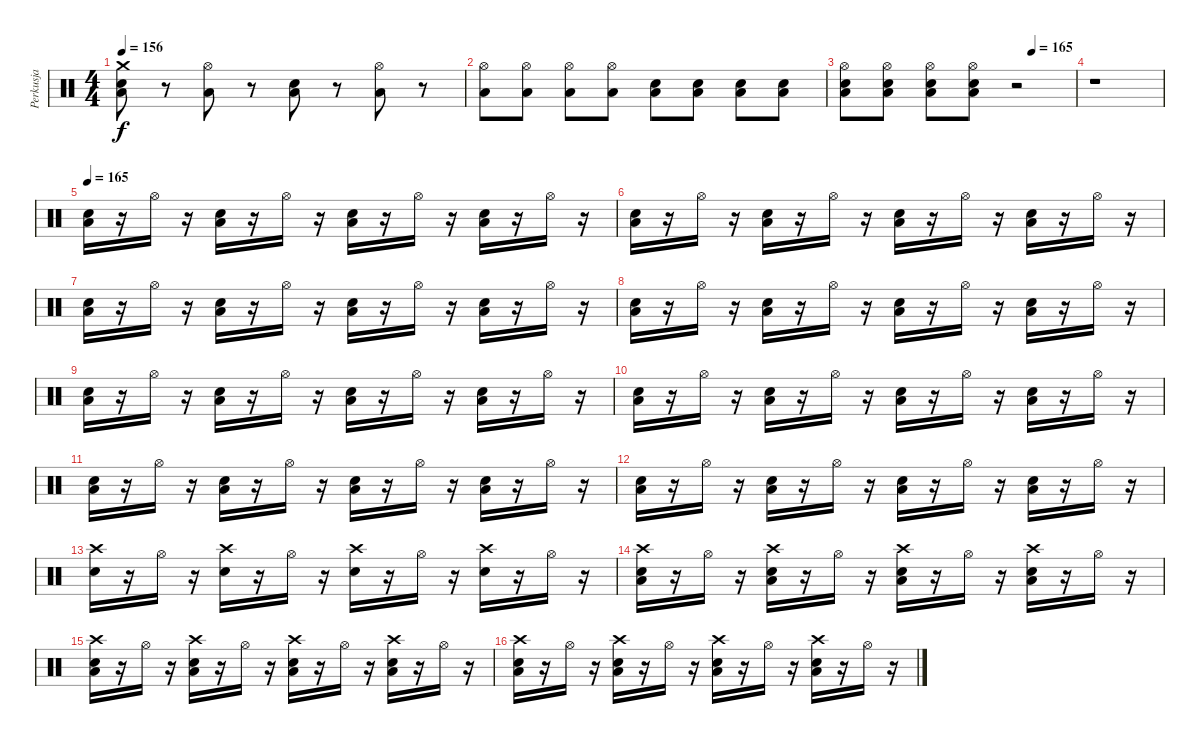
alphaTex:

\track ("Perkusja" "Perkusja") {instrument percussion}
\staff {score}
\articulation defaults
\ts (4 4)
\tempo 156
\clef neutral
\ks c
("Snare (hit) 2" "Low Tom (hit)" "Crash medium (hit)").8{dy f} r.8 ("Hi-Hat (open)" "Low Tom (hit)").8 r.8 ("Snare (hit) 2" "Low Tom (hit)").8 r.8 ("Hi-Hat (open)" "Low Tom (hit)").8 r.8 |
("Low Tom (hit)" "Hi-Hat (open)").8 ("Low Tom (hit)" "Hi-Hat (open)").8 ("Low Tom (hit)" "Hi-Hat (open)").8 ("Low Tom (hit)" "Hi-Hat (open)").8 ("Snare (hit) 2" "Low Tom (hit)").8 ("Snare (hit) 2" "Low Tom (hit)").8 ("Snare (hit) 2" "Low Tom (hit)").8 ("Snare (hit) 2" "Low Tom (hit)").8 |
\tempo (165 0.8125)
("Snare (hit) 2" "Low Tom (hit)" "Hi-Hat (open)").8 ("Snare (hit) 2" "Low Tom (hit)" "Hi-Hat (open)").8 ("Snare (hit) 2" "Low Tom (hit)" "Hi-Hat (open)").8 ("Snare (hit) 2" "Low Tom (hit)" "Hi-Hat (open)").8 r.2 |
r.1 |
\tempo 165
("Snare (hit) 2" "Low Tom (hit)").16 r.16 "Hi-Hat (open)".16 r.16 ("Snare (hit) 2" "Low Tom (hit)").16 r.16 "Hi-Hat (open)".16 r.16 ("Snare (hit) 2" "Low Tom (hit)").16 r.16 "Hi-Hat (open)".16 r.16 ("Snare (hit) 2" "Low Tom (hit)").16 r.16 "Hi-Hat (open)".16 r.16 |
("Snare (hit) 2" "Low Tom (hit)").16 r.16 "Hi-Hat (open)".16 r.16 ("Snare (hit) 2" "Low Tom (hit)").16 r.16 "Hi-Hat (open)".16 r.16 ("Snare (hit) 2" "Low Tom (hit)").16 r.16 "Hi-Hat (open)".16 r.16 ("Snare (hit) 2" "Low Tom (hit)").16 r.16 "Hi-Hat (open)".16 r.16 |
("Snare (hit) 2" "Low Tom (hit)").16 r.16 "Hi-Hat (open)".16 r.16 ("Snare (hit) 2" "Low Tom (hit)").16 r.16 "Hi-Hat (open)".16 r.16 ("Snare (hit) 2" "Low Tom (hit)").16 r.16 "Hi-Hat (open)".16 r.16 ("Snare (hit) 2" "Low Tom (hit)").16 r.16 "Hi-Hat (open)".16 r.16 |
("Snare (hit) 2" "Low Tom (hit)").16 r.16 "Hi-Hat (open)".16 r.16 ("Snare (hit) 2" "Low Tom (hit)").16 r.16 "Hi-Hat (open)".16 r.16 ("Snare (hit) 2" "Low Tom (hit)").16 r.16 "Hi-Hat (open)".16 r.16 ("Snare (hit) 2" "Low Tom (hit)").16 r.16 "Hi-Hat (open)".16 r.16 |
("Snare (hit) 2" "Low Tom (hit)").16 r.16 "Hi-Hat (open)".16 r.16 ("Snare (hit) 2" "Low Tom (hit)").16 r.16 "Hi-Hat (open)".16 r.16 ("Snare (hit) 2" "Low Tom (hit)").16 r.16 "Hi-Hat (open)".16 r.16 ("Snare (hit) 2" "Low Tom (hit)").16 r.16 "Hi-Hat (open)".16 r.16 |
("Snare (hit) 2" "Low Tom (hit)").16 r.16 "Hi-Hat (open)".16 r.16 ("Snare (hit) 2" "Low Tom (hit)").16 r.16 "Hi-Hat (open)".16 r.16 ("Snare (hit) 2" "Low Tom (hit)").16 r.16 "Hi-Hat (open)".16 r.16 ("Snare (hit) 2" "Low Tom (hit)").16 r.16 "Hi-Hat (open)".16 r.16 |
("Snare (hit) 2" "Low Tom (hit)").16 r.16 "Hi-Hat (open)".16 r.16 ("Snare (hit) 2" "Low Tom (hit)").16 r.16 "Hi-Hat (open)".16 r.16 ("Snare (hit) 2" "Low Tom (hit)").16 r.16 "Hi-Hat (open)".16 r.16 ("Snare (hit) 2" "Low Tom (hit)").16 r.16 "Hi-Hat (open)".16 r.16 |
("Snare (hit) 2" "Low Tom (hit)").16 r.16 "Hi-Hat (open)".16 r.16 ("Snare (hit) 2" "Low Tom (hit)").16 r.16 "Hi-Hat (open)".16 r.16 ("Snare (hit) 2" "Low Tom (hit)").16 r.16 "Hi-Hat (open)".16 r.16 ("Snare (hit) 2" "Low Tom (hit)").16 r.16 "Hi-Hat (open)".16 r.16 |
("Snare (hit) 2" "Crash high (hit)").16 r.16 "Hi-Hat (open)".16 r.16 ("Snare (hit) 2" "Crash high (hit)").16 r.16 "Hi-Hat (open)".16 r.16 ("Snare (hit) 2" "Crash high (hit)").16 r.16 "Hi-Hat (open)".16 r.16 ("Snare (hit) 2" "Crash high (hit)").16 r.16 "Hi-Hat (open)".16 r.16 |
("Snare (hit) 2" "Low Tom (hit)" "Crash high (hit)").16 r.16 "Hi-Hat (open)".16 r.16 ("Snare (hit) 2" "Low Tom (hit)" "Crash high (hit)").16 r.16 "Hi-Hat (open)".16 r.16 ("Snare (hit) 2" "Low Tom (hit)" "Crash high (hit)").16 r.16 "Hi-Hat (open)".16 r.16 ("Snare (hit) 2" "Low Tom (hit)" "Crash high (hit)").16 r.16 "Hi-Hat (open)".16 r.16 |
("Snare (hit) 2" "Low Tom (hit)" "Crash high (hit)").16 r.16 "Hi-Hat (open)".16 r.16 ("Snare (hit) 2" "Low Tom (hit)" "Crash high (hit)").16 r.16 "Hi-Hat (open)".16 r.16 ("Snare (hit) 2" "Low Tom (hit)" "Crash high (hit)").16 r.16 "Hi-Hat (open)".16 r.16 ("Snare (hit) 2" "Low Tom (hit)" "Crash high (hit)").16 r.16 "Hi-Hat (open)".16 r.16 |
("Snare (hit) 2" "Low Tom (hit)" "Crash high (hit)").16 r.16 "Hi-Hat (open)".16 r.16 ("Snare (hit) 2" "Low Tom (hit)" "Crash high (hit)").16 r.16 "Hi-Hat (open)".16 r.16 ("Snare (hit) 2" "Low Tom (hit)" "Crash high (hit)").16 r.16 "Hi-Hat (open)".16 r.16 ("Snare (hit) 2" "Low Tom (hit)" "Crash high (hit)").16 r.16 "Hi-Hat (open)".16 r.16
